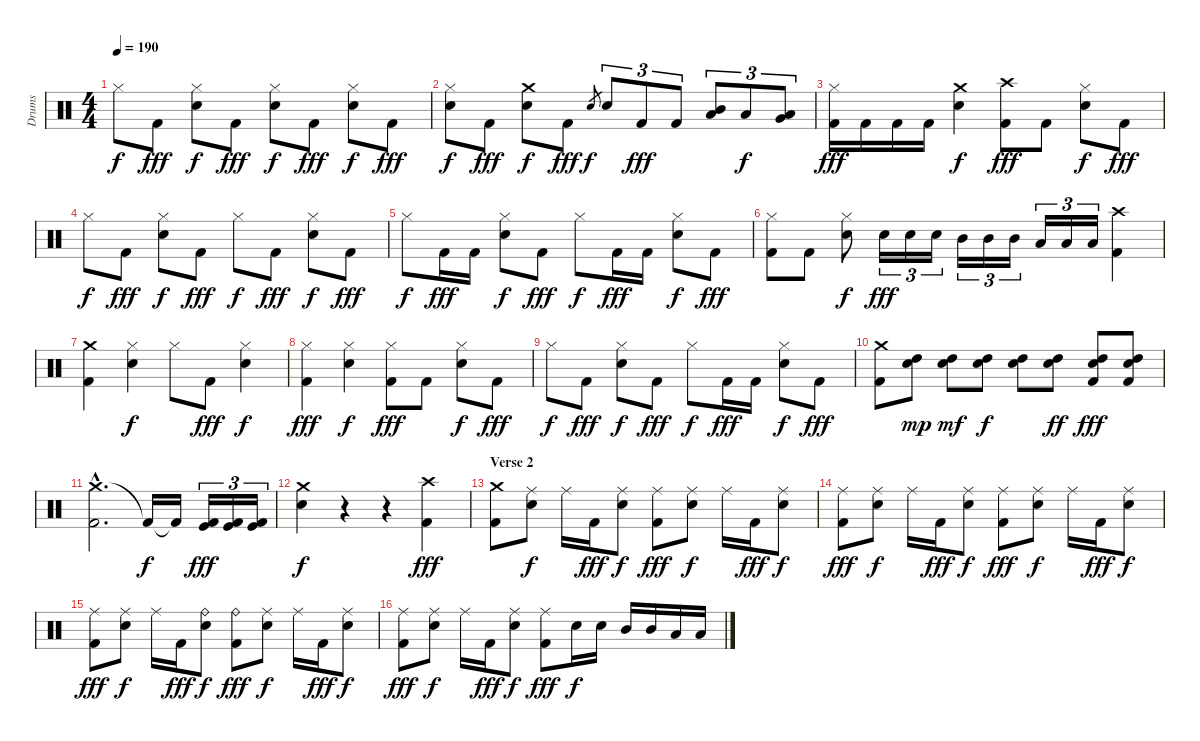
\track ("Drums" "Drums") {instrument percussion}
\staff {score}
\articulation defaults
\ts (4 4)
\tempo 190
\clef neutral
\ks c "Hi-Hat (closed)".8{dy f} "Kick (hit) 2".8{dy fff}
("Hi-Hat (closed)" "Snare (hit) 2").8{dy f} "Kick (hit) 2".8{dy fff} ("Hi-Hat (closed)" "Snare (hit) 2").8{dy f} "Kick (hit) 2".8{dy fff} ("Hi-Hat (closed)" "Snare (hit) 2").8{dy f} "Kick (hit) 2".8{dy fff} |
("Hi-Hat (closed)" "Snare (hit) 2").8{dy f} "Kick (hit) 2".8{dy fff} ("Crash medium (hit)" "Snare (hit) 2").8{dy f} "Kick (hit) 2".8{dy fff} "Snare (hit) 2".8{gr dy f} "Snare (hit) 2".8{tu (3 2)} "Kick (hit) 2".8{tu (3 2) dy fff} "Kick (hit) 2".8{tu (3 2)} ("Mid Tom (hit)" "Low Floor Tom (hit)").8{tu (3 2)} "Low Tom (hit)".8{tu (3 2) dy f} ("Very Low Tom (hit)" "Low Tom (hit)").8{tu (3 2)} |
("Hi-Hat (closed)" "Kick (hit) 2").16{dy fff} "Kick (hit) 2".16 "Kick (hit) 2".16 "Kick (hit) 2".16 ("Crash medium (hit)" "Snare (hit) 2").4{dy f} ("Crash high (hit)" "Kick (hit) 2").8{dy fff} "Kick (hit) 2".8 ("Hi-Hat (closed)" "Snare (hit) 2").8{dy f} "Kick (hit) 2".8{dy fff} |
"Hi-Hat (closed)".8{dy f} "Kick (hit) 2".8{dy fff} ("Hi-Hat (closed)" "Snare (hit) 2").8{dy f} "Kick (hit) 2".8{dy fff} "Hi-Hat (closed)".8{dy f} "Kick (hit) 2".8{dy fff} ("Hi-Hat (closed)" "Snare (hit) 2").8{dy f} "Kick (hit) 2".8{dy fff} |
"Hi-Hat (closed)".8{dy f} "Kick (hit) 2".16{dy fff} "Kick (hit) 2".16 ("Hi-Hat (closed)" "Snare (hit) 2").8{dy f} "Kick (hit) 2".8{dy fff} "Hi-Hat (closed)".8{dy f} "Kick (hit) 2".16{dy fff} "Kick (hit) 2".16 ("Hi-Hat (closed)" "Snare (hit) 2").8{dy f} "Kick (hit) 2".8{dy fff} |
("Hi-Hat (closed)" "Kick (hit) 2").8 "Kick (hit) 2".8 ("Hi-Hat (closed)" "Snare (hit) 2").8{dy f} "Snare (hit) 2".16{tu (3 2) dy fff} "Snare (hit) 2".16{tu (3 2)} "Snare (hit) 2".16{tu (3 2)} "Mid Tom (hit)".16{tu (3 2)} "Mid Tom (hit)".16{tu (3 2)} "Mid Tom (hit)".16{tu (3 2)} "Low Tom (hit)".16{tu (3 2)} "Low Tom (hit)".16{tu (3 2)} "Low Tom (hit)".16{tu (3 2)} ("Crash high (hit)" "Kick (hit) 2").4 |
("Crash medium (hit)" "Kick (hit) 2").4 ("Hi-Hat (closed)" "Snare (hit) 2").4{dy f} "Hi-Hat (closed)".8 "Kick (hit) 2".8{dy fff} ("Hi-Hat (closed)" "Snare (hit) 2").4{dy f} |
("Hi-Hat (closed)" "Kick (hit) 2").4{dy fff} ("Hi-Hat (closed)" "Snare (hit) 2").4{dy f} ("Hi-Hat (closed)" "Kick (hit) 2").8{dy fff} "Kick (hit) 2".8 ("Hi-Hat (closed)" "Snare (hit) 2").8{dy f} "Kick (hit) 2".8{dy fff} |
"Hi-Hat (closed)".8{dy f} "Kick (hit) 2".8{dy fff} ("Hi-Hat (closed)" "Snare (hit) 2").8{dy f} "Kick (hit) 2".8{dy fff} "Hi-Hat (closed)".8{dy f} "Kick (hit) 2".16{dy fff} "Kick (hit) 2".16 ("Hi-Hat (closed)" "Snare (hit) 2").8{dy f} "Kick (hit) 2".8{dy fff} |
("Crash medium (hit)" "Kick (hit) 2").8 ("Snare (hit) 2" "High Tom (hit)").8{dy mp} ("Snare (hit) 2" "High Tom (hit)").8{dy mf} ("Snare (hit) 2" "High Tom (hit)").8{dy f} ("Snare (hit) 2" "High Tom (hit)").8 ("Snare (hit) 2" "High Tom (hit)").8{dy ff} ("Snare (hit) 2" "High Tom (hit)" "Kick (hit) 2").8{dy fff} ("Snare (hit) 2" "High Tom (hit)" "Kick (hit) 2").8 |
("Crash medium (hit)"{hac} "Kick (hit) 2"{hac}).2{d} "Kick (hit) 2"{t}.16{dy f} "Kick (hit) 2"{t}.16 ("Kick (hit)" "Kick (hit) 2").16{tu (3 2) dy fff} ("Kick (hit)" "Kick (hit) 2").16{tu (3 2)} ("Kick (hit)" "Kick (hit) 2").16{tu (3 2)} |
("Crash medium (hit)" "Snare (hit) 2").4{dy f} r.4 r.4 ("Crash high (hit)" "Kick (hit) 2").4{dy fff} |
\section ("" "Verse 2")
("Crash medium (hit)" "Kick (hit) 2").8 ("Ride (middle)" "Snare (hit) 2").8{dy f} "Ride (middle)".16 "Kick (hit) 2".16{dy fff} ("Ride (middle)" "Snare (hit) 2").8{dy f} ("Ride (middle)" "Kick (hit) 2").8{dy fff} ("Ride (middle)" "Snare (hit) 2").8{dy f} "Ride (middle)".16 "Kick (hit) 2".16{dy fff} ("Ride (middle)" "Snare (hit) 2").8{dy f} |
("Ride (middle)" "Kick (hit) 2").8{dy fff} ("Ride (middle)" "Snare (hit) 2").8{dy f} "Ride (middle)".16 "Kick (hit) 2".16{dy fff} ("Ride (middle)" "Snare (hit) 2").8{dy f} ("Ride (middle)" "Kick (hit) 2").8{dy fff} ("Ride (middle)" "Snare (hit) 2").8{dy f} "Ride (middle)".16 "Kick (hit) 2".16{dy fff} ("Ride (middle)" "Snare (hit) 2").8{dy f} |
("Ride (middle)" "Kick (hit) 2").8{dy fff} ("Ride (middle)" "Snare (hit) 2").8{dy f} "Ride (middle)".16 "Kick (hit) 2".16{dy fff} ("Ride (bell)" "Snare (hit) 2").8{dy f} ("Ride (bell)" "Kick (hit) 2").8{dy fff} ("Ride (middle)" "Snare (hit) 2").8{dy f} "Ride (middle)".16 "Kick (hit) 2".16{dy fff} ("Ride (middle)" "Snare (hit) 2").8{dy f} |
("Ride (middle)" "Kick (hit) 2").8{dy fff} ("Ride (middle)" "Snare (hit) 2").8{dy f} "Ride (middle)".16 "Kick (hit) 2".16{dy fff} ("Ride (middle)" "Snare (hit) 2").8{dy f} ("Ride (middle)" "Kick (hit) 2").8{dy fff} "Snare (hit) 2".16{dy f} "Snare (hit) 2".16 "Mid Tom (hit)".16 "Mid Tom (hit)".16 "Low Tom (hit)".16 "Low Tom (hit)".16
